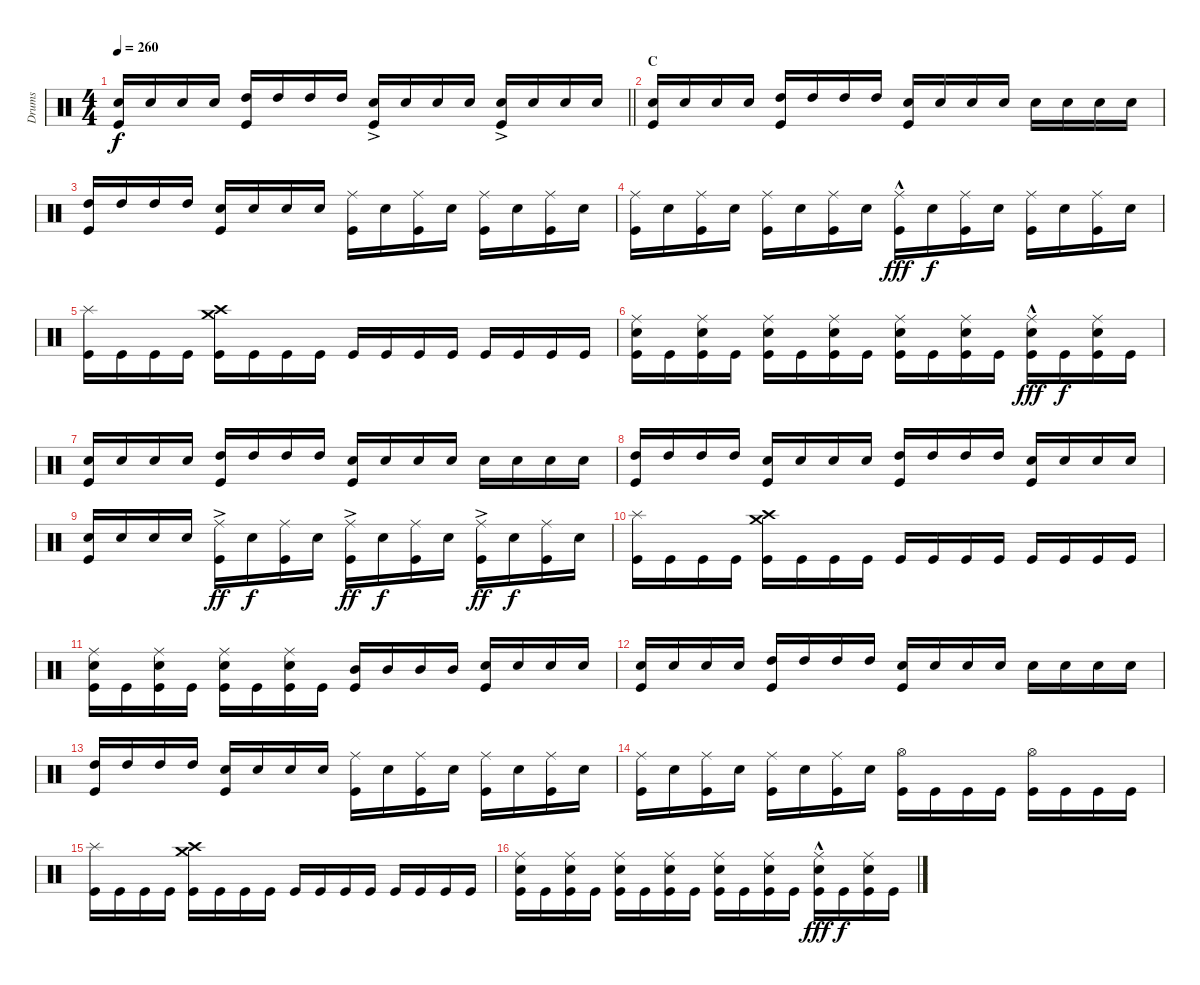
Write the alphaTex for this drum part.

\track ("Drums" "Drums") {instrument percussion}
\staff {score}
\articulation defaults
\ts (4 4)
\tempo 260
\clef neutral
\barLineRight lightlight
\ks c
("Electric Snare (hit)" "Kick (hit)").16{dy f} "Electric Snare (hit)".16 "Electric Snare (hit)".16 "Electric Snare (hit)".16 ("High Tom (hit)" "Kick (hit)").16 "High Tom (hit)".16 "High Tom (hit)".16 "High Tom (hit)".16 ("Electric Snare (hit)"{ac} "Kick (hit)").16 "Electric Snare (hit)".16 "Electric Snare (hit)".16 "Electric Snare (hit)".16 ("Electric Snare (hit)"{ac} "Kick (hit)").16 "Electric Snare (hit)".16 "Electric Snare (hit)".16 "Electric Snare (hit)".16 |
\section ("" "C")
("Electric Snare (hit)" "Kick (hit)").16 "Electric Snare (hit)".16 "Electric Snare (hit)".16 "Electric Snare (hit)".16 ("High Tom (hit)" "Kick (hit)").16 "High Tom (hit)".16 "High Tom (hit)".16 "High Tom (hit)".16 ("Electric Snare (hit)" "Kick (hit)").16 "Electric Snare (hit)".16 "Electric Snare (hit)".16 "Electric Snare (hit)".16 "Electric Snare (hit)".16 "Electric Snare (hit)".16 "Electric Snare (hit)".16 "Electric Snare (hit)".16 |
("High Tom (hit)" "Kick (hit)").16 "High Tom (hit)".16 "High Tom (hit)".16 "High Tom (hit)".16 ("Electric Snare (hit)" "Kick (hit)").16 "Electric Snare (hit)".16 "Electric Snare (hit)".16 "Electric Snare (hit)".16 ("Ride (middle)" "Kick (hit)").16 "Electric Snare (hit)".16 ("Ride (middle)" "Kick (hit)").16 "Electric Snare (hit)".16 ("Ride (middle)" "Kick (hit)").16 "Electric Snare (hit)".16 ("Ride (middle)" "Kick (hit)").16 "Electric Snare (hit)".16 |
("Ride (middle)" "Kick (hit)").16 "Electric Snare (hit)".16 ("Ride (middle)" "Kick (hit)").16 "Electric Snare (hit)".16 ("Ride (middle)" "Kick (hit)").16 "Electric Snare (hit)".16 ("Ride (middle)" "Kick (hit)").16 "Electric Snare (hit)".16 ("Ride (middle)"{hac} "Kick (hit)").16{dy fff} "Electric Snare (hit)".16{dy f} ("Ride (middle)" "Kick (hit)").16 "Electric Snare (hit)".16 ("Ride (middle)" "Kick (hit)").16 "Electric Snare (hit)".16 ("Ride (middle)" "Kick (hit)").16 "Electric Snare (hit)".16 |
("Splash (hit)" "Kick (hit)").16 "Kick (hit)".16 "Kick (hit)".16 "Kick (hit)".16 ("Crash high (hit)" "Crash medium (hit)" "Kick (hit)").16 "Kick (hit)".16 "Kick (hit)".16 "Kick (hit)".16 "Kick (hit)".16 "Kick (hit)".16 "Kick (hit)".16 "Kick (hit)".16 "Kick (hit)".16 "Kick (hit)".16 "Kick (hit)".16 "Kick (hit)".16 |
("Ride (middle)" "Electric Snare (hit)" "Kick (hit)").16 "Kick (hit)".16 ("Ride (middle)" "Electric Snare (hit)" "Kick (hit)").16 "Kick (hit)".16 ("Ride (middle)" "Electric Snare (hit)" "Kick (hit)").16 "Kick (hit)".16 ("Ride (middle)" "Electric Snare (hit)" "Kick (hit)").16 "Kick (hit)".16 ("Ride (middle)" "Electric Snare (hit)" "Kick (hit)").16 "Kick (hit)".16 ("Ride (middle)" "Electric Snare (hit)" "Kick (hit)").16 "Kick (hit)".16 ("Ride (middle)"{hac} "Electric Snare (hit)" "Kick (hit)").16{dy fff} "Kick (hit)".16{dy f} ("Ride (middle)" "Electric Snare (hit)" "Kick (hit)").16 "Kick (hit)".16 |
("Electric Snare (hit)" "Kick (hit)").16 "Electric Snare (hit)".16 "Electric Snare (hit)".16 "Electric Snare (hit)".16 ("High Tom (hit)" "Kick (hit)").16 "High Tom (hit)".16 "High Tom (hit)".16 "High Tom (hit)".16 ("Electric Snare (hit)" "Kick (hit)").16 "Electric Snare (hit)".16 "Electric Snare (hit)".16 "Electric Snare (hit)".16 "Electric Snare (hit)".16 "Electric Snare (hit)".16 "Electric Snare (hit)".16 "Electric Snare (hit)".16 |
("High Tom (hit)" "Kick (hit)").16 "High Tom (hit)".16 "High Tom (hit)".16 "High Tom (hit)".16 ("Electric Snare (hit)" "Kick (hit)").16 "Electric Snare (hit)".16 "Electric Snare (hit)".16 "Electric Snare (hit)".16 ("High Tom (hit)" "Kick (hit)").16 "High Tom (hit)".16 "High Tom (hit)".16 "High Tom (hit)".16 ("Electric Snare (hit)" "Kick (hit)").16 "Electric Snare (hit)".16 "Electric Snare (hit)".16 "Electric Snare (hit)".16 |
("Electric Snare (hit)" "Kick (hit)").16 "Electric Snare (hit)".16 "Electric Snare (hit)".16 "Electric Snare (hit)".16 ("Ride (middle)"{ac} "Kick (hit)").16{dy ff} "Electric Snare (hit)".16{dy f} ("Ride (middle)" "Kick (hit)").16 "Electric Snare (hit)".16 ("Ride (middle)"{ac} "Kick (hit)").16{dy ff} "Electric Snare (hit)".16{dy f} ("Ride (middle)" "Kick (hit)").16 "Electric Snare (hit)".16 ("Ride (middle)"{ac} "Kick (hit)").16{dy ff} "Electric Snare (hit)".16{dy f} ("Ride (middle)" "Kick (hit)").16 "Electric Snare (hit)".16 |
("Splash (hit)" "Kick (hit)").16 "Kick (hit)".16 "Kick (hit)".16 "Kick (hit)".16 ("Crash high (hit)" "Crash medium (hit)" "Kick (hit)").16 "Kick (hit)".16 "Kick (hit)".16 "Kick (hit)".16 "Kick (hit)".16 "Kick (hit)".16 "Kick (hit)".16 "Kick (hit)".16 "Kick (hit)".16 "Kick (hit)".16 "Kick (hit)".16 "Kick (hit)".16 |
("Ride (middle)" "Electric Snare (hit)" "Kick (hit)").16 "Kick (hit)".16 ("Ride (middle)" "Electric Snare (hit)" "Kick (hit)").16 "Kick (hit)".16 ("Ride (middle)" "Electric Snare (hit)" "Kick (hit)").16 "Kick (hit)".16 ("Ride (middle)" "Electric Snare (hit)" "Kick (hit)").16 "Kick (hit)".16 ("Mid Tom (hit)" "Kick (hit)").16 "Mid Tom (hit)".16 "Mid Tom (hit)".16 "Mid Tom (hit)".16 ("Electric Snare (hit)" "Kick (hit)").16 "Electric Snare (hit)".16 "Electric Snare (hit)".16 "Electric Snare (hit)".16 |
("Electric Snare (hit)" "Kick (hit)").16 "Electric Snare (hit)".16 "Electric Snare (hit)".16 "Electric Snare (hit)".16 ("High Tom (hit)" "Kick (hit)").16 "High Tom (hit)".16 "High Tom (hit)".16 "High Tom (hit)".16 ("Electric Snare (hit)" "Kick (hit)").16 "Electric Snare (hit)".16 "Electric Snare (hit)".16 "Electric Snare (hit)".16 "Electric Snare (hit)".16 "Electric Snare (hit)".16 "Electric Snare (hit)".16 "Electric Snare (hit)".16 |
("High Tom (hit)" "Kick (hit)").16 "High Tom (hit)".16 "High Tom (hit)".16 "High Tom (hit)".16 ("Electric Snare (hit)" "Kick (hit)").16 "Electric Snare (hit)".16 "Electric Snare (hit)".16 "Electric Snare (hit)".16 ("Ride (middle)" "Kick (hit)").16 "Electric Snare (hit)".16 ("Ride (middle)" "Kick (hit)").16 "Electric Snare (hit)".16 ("Ride (middle)" "Kick (hit)").16 "Electric Snare (hit)".16 ("Ride (middle)" "Kick (hit)").16 "Electric Snare (hit)".16 |
("Ride (middle)" "Kick (hit)").16 "Electric Snare (hit)".16 ("Ride (middle)" "Kick (hit)").16 "Electric Snare (hit)".16 ("Ride (middle)" "Kick (hit)").16 "Electric Snare (hit)".16 ("Ride (middle)" "Kick (hit)").16 "Electric Snare (hit)".16 ("Hi-Hat (open)" "Kick (hit)").16 "Kick (hit)".16 "Kick (hit)".16 "Kick (hit)".16 ("Hi-Hat (open)" "Kick (hit)").16 "Kick (hit)".16 "Kick (hit)".16 "Kick (hit)".16 |
("Splash (hit)" "Kick (hit)").16 "Kick (hit)".16 "Kick (hit)".16 "Kick (hit)".16 ("Crash high (hit)" "Crash medium (hit)" "Kick (hit)").16 "Kick (hit)".16 "Kick (hit)".16 "Kick (hit)".16 "Kick (hit)".16 "Kick (hit)".16 "Kick (hit)".16 "Kick (hit)".16 "Kick (hit)".16 "Kick (hit)".16 "Kick (hit)".16 "Kick (hit)".16 |
("Ride (middle)" "Electric Snare (hit)" "Kick (hit)").16 "Kick (hit)".16 ("Ride (middle)" "Electric Snare (hit)" "Kick (hit)").16 "Kick (hit)".16 ("Ride (middle)" "Electric Snare (hit)" "Kick (hit)").16 "Kick (hit)".16 ("Ride (middle)" "Electric Snare (hit)" "Kick (hit)").16 "Kick (hit)".16 ("Ride (middle)" "Electric Snare (hit)" "Kick (hit)").16 "Kick (hit)".16 ("Ride (middle)" "Electric Snare (hit)" "Kick (hit)").16 "Kick (hit)".16 ("Ride (middle)"{hac} "Electric Snare (hit)" "Kick (hit)").16{dy fff} "Kick (hit)".16{dy f} ("Ride (middle)" "Electric Snare (hit)" "Kick (hit)").16 "Kick (hit)".16
